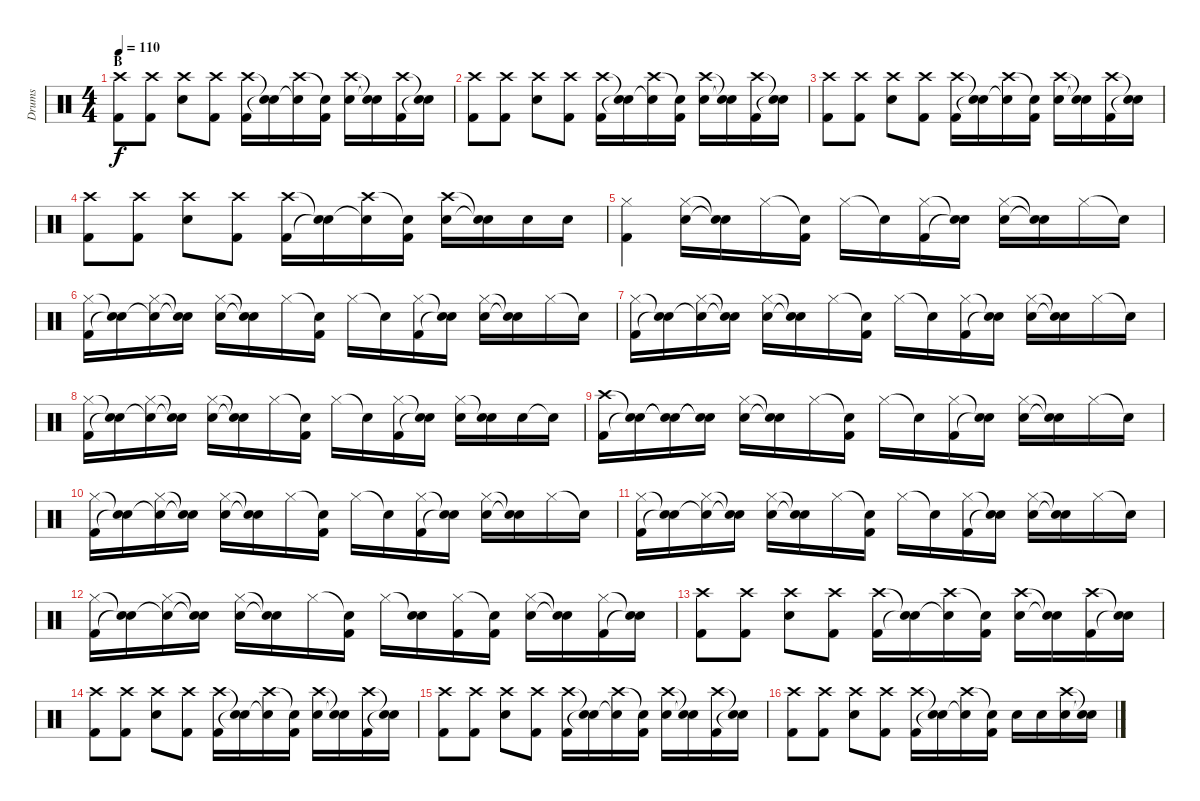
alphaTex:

\track ("Drums" "Drums") {instrument percussion}
\staff {score}
\articulation defaults
\ts (4 4)
\section ("" "B")
\tempo 110
\clef neutral
\ks c
("Crash high (hit)" "Kick (hit) 2").8{dy f} ("Crash high (hit)" "Kick (hit) 2").8 ("Crash high (hit)" "Snare (hit) 2").8 ("Crash high (hit)" "Kick (hit) 2").8 ("Crash high (hit)" "Kick (hit) 2").16 ("Snare (hit)"{t} "Snare (hit)"{t}).16 ("Crash high (hit)" "Snare (hit)"{t}).16 ("Snare (hit)"{t} "Kick (hit) 2").16 ("Crash high (hit)" "Snare (hit) 2").16 ("Snare (hit)"{t} "Snare (hit)"{t}).16 ("Crash high (hit)" "Kick (hit) 2").16 ("Snare (hit)"{t} "Snare (hit)"{t}).16 |
("Crash high (hit)" "Kick (hit) 2").8 ("Crash high (hit)" "Kick (hit) 2").8 ("Crash high (hit)" "Snare (hit) 2").8 ("Crash high (hit)" "Kick (hit) 2").8 ("Crash high (hit)" "Kick (hit) 2").16 ("Snare (hit)"{t} "Snare (hit)"{t}).16 ("Crash high (hit)" "Snare (hit)"{t}).16 ("Snare (hit)"{t} "Kick (hit) 2").16 ("Crash high (hit)" "Snare (hit) 2").16 ("Snare (hit)"{t} "Snare (hit)"{t}).16 ("Crash high (hit)" "Kick (hit) 2").16 ("Snare (hit)"{t} "Snare (hit)"{t}).16 |
("Crash high (hit)" "Kick (hit) 2").8 ("Crash high (hit)" "Kick (hit) 2").8 ("Crash high (hit)" "Snare (hit) 2").8 ("Crash high (hit)" "Kick (hit) 2").8 ("Crash high (hit)" "Kick (hit) 2").16 ("Snare (hit)"{t} "Snare (hit)"{t}).16 ("Crash high (hit)" "Snare (hit)"{t}).16 ("Snare (hit)"{t} "Kick (hit) 2").16 ("Crash high (hit)" "Snare (hit) 2").16 ("Snare (hit)"{t} "Snare (hit)"{t}).16 ("Crash high (hit)" "Kick (hit) 2").16 ("Snare (hit)"{t} "Snare (hit)"{t}).16 |
("Crash high (hit)" "Kick (hit) 2").8 ("Crash high (hit)" "Kick (hit) 2").8 ("Crash high (hit)" "Snare (hit) 2").8 ("Crash high (hit)" "Kick (hit) 2").8 ("Crash high (hit)" "Kick (hit) 2").16 ("Snare (hit)"{t} "Snare (hit)"{t}).16 ("Crash high (hit)" "Snare (hit)"{t}).16 ("Snare (hit)"{t} "Kick (hit) 2").16 ("Crash high (hit)" "Snare (hit) 2").16 ("Snare (hit)"{t} "Snare (hit)"{t}).16 "Snare (hit) 2".16 "Snare (hit) 2".16 |
("Hi-Hat (closed)" "Kick (hit) 2").4 ("Hi-Hat (closed)" "Snare (hit) 2").16 ("Snare (hit)"{t} "Snare (hit)"{t}).16 "Hi-Hat (closed)".16 ("Snare (hit)"{t} "Kick (hit) 2").16 "Hi-Hat (closed)".16 "Snare (hit)"{t}.16 ("Hi-Hat (closed)" "Kick (hit) 2").16 ("Snare (hit)"{t} "Snare (hit)"{t}).16 ("Hi-Hat (closed)" "Snare (hit) 2").16 ("Snare (hit)"{t} "Snare (hit)"{t}).16 "Hi-Hat (closed)".16 "Snare (hit)"{t}.16 |
("Hi-Hat (closed)" "Kick (hit) 2").16 ("Snare (hit)"{t} "Snare (hit)"{t}).16 ("Hi-Hat (closed)" "Snare (hit)"{t}).16 ("Snare (hit)"{t} "Snare (hit)"{t}).16 ("Hi-Hat (closed)" "Snare (hit) 2").16 ("Snare (hit)"{t} "Snare (hit)"{t}).16 "Hi-Hat (closed)".16 ("Snare (hit)"{t} "Kick (hit) 2").16 "Hi-Hat (closed)".16 "Snare (hit)"{t}.16 ("Hi-Hat (closed)" "Kick (hit) 2").16 ("Snare (hit)"{t} "Snare (hit)"{t}).16 ("Hi-Hat (closed)" "Snare (hit) 2").16 ("Snare (hit)"{t} "Snare (hit)"{t}).16 "Hi-Hat (closed)".16 "Snare (hit)"{t}.16 |
("Hi-Hat (closed)" "Kick (hit) 2").16 ("Snare (hit)"{t} "Snare (hit)"{t}).16 ("Hi-Hat (closed)" "Snare (hit)"{t}).16 ("Snare (hit)"{t} "Snare (hit)"{t}).16 ("Hi-Hat (closed)" "Snare (hit) 2").16 ("Snare (hit)"{t} "Snare (hit)"{t}).16 "Hi-Hat (closed)".16 ("Snare (hit)"{t} "Kick (hit) 2").16 "Hi-Hat (closed)".16 "Snare (hit)"{t}.16 ("Hi-Hat (closed)" "Kick (hit) 2").16 ("Snare (hit)"{t} "Snare (hit)"{t}).16 ("Hi-Hat (closed)" "Snare (hit) 2").16 ("Snare (hit)"{t} "Snare (hit)"{t}).16 "Hi-Hat (closed)".16 "Snare (hit)"{t}.16 |
("Hi-Hat (closed)" "Kick (hit) 2").16 ("Snare (hit)"{t} "Snare (hit)"{t}).16 ("Hi-Hat (closed)" "Snare (hit)"{t}).16 ("Snare (hit)"{t} "Snare (hit)"{t}).16 ("Hi-Hat (closed)" "Snare (hit) 2").16 ("Snare (hit)"{t} "Snare (hit)"{t}).16 "Hi-Hat (closed)".16 ("Snare (hit)"{t} "Kick (hit) 2").16 "Hi-Hat (closed)".16 "Snare (hit)"{t}.16 ("Hi-Hat (closed)" "Kick (hit) 2").16 ("Snare (hit)"{t} "Snare (hit)"{t}).16 ("Hi-Hat (closed)" "Snare (hit) 2").16 ("Snare (hit)"{t} "Snare (hit) 2").16 "Snare (hit) 2".16 "Snare (hit) 2"{t}.16 |
("Crash high (hit)" "Kick (hit) 2").16 ("Snare (hit)"{t} "Snare (hit)"{t}).16 ("Snare (hit)"{t} "Snare (hit)"{t}).16 ("Snare (hit)"{t} "Snare (hit)"{t}).16 ("Hi-Hat (closed)" "Snare (hit) 2").16 ("Snare (hit)"{t} "Snare (hit)"{t}).16 "Hi-Hat (closed)".16 ("Snare (hit)"{t} "Kick (hit) 2").16 "Hi-Hat (closed)".16 "Snare (hit)"{t}.16 ("Hi-Hat (closed)" "Kick (hit) 2").16 ("Snare (hit)"{t} "Snare (hit)"{t}).16 ("Hi-Hat (closed)" "Snare (hit) 2").16 ("Snare (hit)"{t} "Snare (hit)"{t}).16 "Hi-Hat (closed)".16 "Snare (hit)"{t}.16 |
("Hi-Hat (closed)" "Kick (hit) 2").16 ("Snare (hit)"{t} "Snare (hit)"{t}).16 ("Hi-Hat (closed)" "Snare (hit)"{t}).16 ("Snare (hit)"{t} "Snare (hit)"{t}).16 ("Hi-Hat (closed)" "Snare (hit) 2").16 ("Snare (hit)"{t} "Snare (hit)"{t}).16 "Hi-Hat (closed)".16 ("Snare (hit)"{t} "Kick (hit) 2").16 "Hi-Hat (closed)".16 "Snare (hit)"{t}.16 ("Hi-Hat (closed)" "Kick (hit) 2").16 ("Snare (hit)"{t} "Snare (hit)"{t}).16 ("Hi-Hat (closed)" "Snare (hit) 2").16 ("Snare (hit)"{t} "Snare (hit)"{t}).16 "Hi-Hat (closed)".16 "Snare (hit)"{t}.16 |
("Hi-Hat (closed)" "Kick (hit) 2").16 ("Snare (hit)"{t} "Snare (hit)"{t}).16 ("Hi-Hat (closed)" "Snare (hit)"{t}).16 ("Snare (hit)"{t} "Snare (hit)"{t}).16 ("Hi-Hat (closed)" "Snare (hit) 2").16 ("Snare (hit)"{t} "Snare (hit)"{t}).16 "Hi-Hat (closed)".16 ("Snare (hit)"{t} "Kick (hit) 2").16 "Hi-Hat (closed)".16 "Snare (hit)"{t}.16 ("Hi-Hat (closed)" "Kick (hit) 2").16 ("Snare (hit)"{t} "Snare (hit)"{t}).16 ("Hi-Hat (closed)" "Snare (hit) 2").16 ("Snare (hit)"{t} "Snare (hit)"{t}).16 "Hi-Hat (closed)".16 "Snare (hit)"{t}.16 |
("Hi-Hat (closed)" "Kick (hit) 2").16 ("Snare (hit)"{t} "Snare (hit)"{t}).16 ("Hi-Hat (closed)" "Snare (hit)"{t}).16 ("Snare (hit)"{t} "Snare (hit)"{t}).16 ("Hi-Hat (closed)" "Snare (hit) 2").16 ("Snare (hit)"{t} "Snare (hit)"{t}).16 "Hi-Hat (closed)".16 ("Snare (hit)"{t} "Kick (hit) 2").16 "Hi-Hat (closed)".16 ("Snare (hit)"{t} "Snare (hit) 2").16 ("Hi-Hat (closed)" "Kick (hit) 2").16 ("Snare (hit)"{t} "Kick (hit) 2").16 ("Hi-Hat (closed)" "Snare (hit) 2").16 ("Snare (hit)"{t} "Snare (hit)"{t}).16 ("Hi-Hat (closed)" "Kick (hit) 2").16 ("Snare (hit)"{t} "Snare (hit)"{t}).16 |
("Crash high (hit)" "Kick (hit) 2").8 ("Crash high (hit)" "Kick (hit) 2").8 ("Crash high (hit)" "Snare (hit) 2").8 ("Crash high (hit)" "Kick (hit) 2").8 ("Crash high (hit)" "Kick (hit) 2").16 ("Snare (hit)"{t} "Snare (hit)"{t}).16 ("Crash high (hit)" "Snare (hit)"{t}).16 ("Snare (hit)"{t} "Kick (hit) 2").16 ("Crash high (hit)" "Snare (hit) 2").16 ("Snare (hit)"{t} "Snare (hit)"{t}).16 ("Crash high (hit)" "Kick (hit) 2").16 ("Snare (hit)"{t} "Snare (hit)"{t}).16 |
("Crash high (hit)" "Kick (hit) 2").8 ("Crash high (hit)" "Kick (hit) 2").8 ("Crash high (hit)" "Snare (hit) 2").8 ("Crash high (hit)" "Kick (hit) 2").8 ("Crash high (hit)" "Kick (hit) 2").16 ("Snare (hit)"{t} "Snare (hit)"{t}).16 ("Crash high (hit)" "Snare (hit)"{t}).16 ("Snare (hit)"{t} "Kick (hit) 2").16 ("Crash high (hit)" "Snare (hit) 2").16 ("Snare (hit)"{t} "Snare (hit)"{t}).16 ("Crash high (hit)" "Kick (hit) 2").16 ("Snare (hit)"{t} "Snare (hit)"{t}).16 |
("Crash high (hit)" "Kick (hit) 2").8 ("Crash high (hit)" "Kick (hit) 2").8 ("Crash high (hit)" "Snare (hit) 2").8 ("Crash high (hit)" "Kick (hit) 2").8 ("Crash high (hit)" "Kick (hit) 2").16 ("Snare (hit)"{t} "Snare (hit)"{t}).16 ("Crash high (hit)" "Snare (hit)"{t}).16 ("Snare (hit)"{t} "Kick (hit) 2").16 ("Crash high (hit)" "Snare (hit) 2").16 ("Snare (hit)"{t} "Snare (hit)"{t}).16 ("Crash high (hit)" "Kick (hit) 2").16 ("Snare (hit)"{t} "Snare (hit)"{t}).16 |
("Crash high (hit)" "Kick (hit) 2").8 ("Crash high (hit)" "Kick (hit) 2").8 ("Crash high (hit)" "Snare (hit) 2").8 ("Crash high (hit)" "Kick (hit) 2").8 ("Crash high (hit)" "Kick (hit) 2").16 ("Snare (hit)"{t} "Snare (hit)"{t}).16 ("Crash high (hit)" "Snare (hit)"{t}).16 ("Snare (hit)"{t} "Kick (hit) 2").16 "Snare (hit) 2".16 "Snare (hit) 2".16 ("Crash high (hit)" "Snare (hit) 2").16 ("Snare (hit)"{t} "Snare (hit) 2"{t}).16
